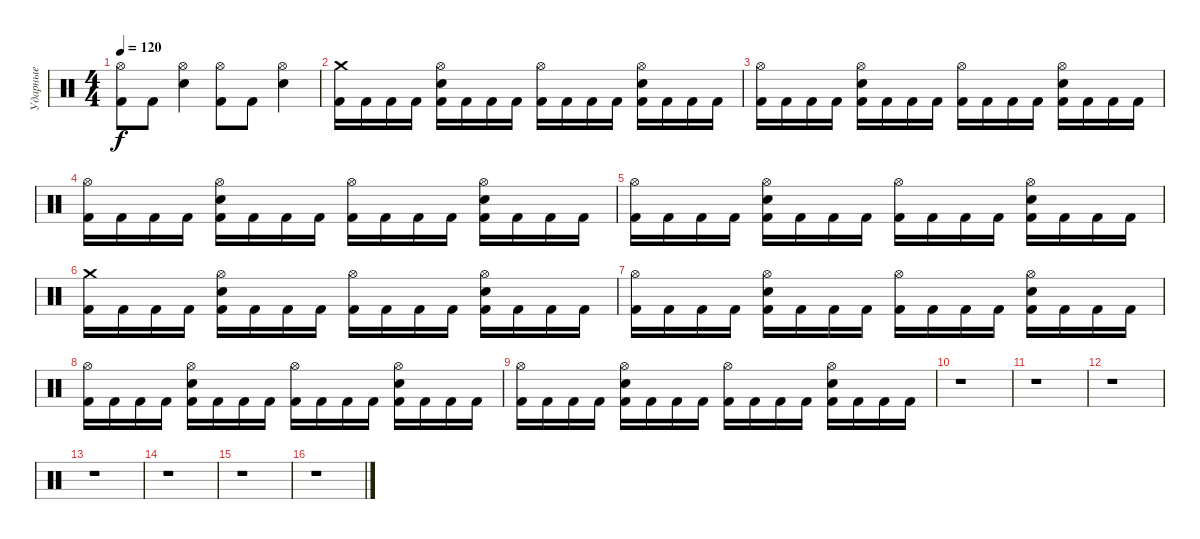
\track ("Ударные" "Ударные") {instrument percussion}
\staff {score}
\articulation defaults
\ts (4 4)
\tempo 120
\clef neutral
\ks c
("Hi-Hat (open)" "Kick (hit) 2").8{dy f} "Kick (hit) 2".8 ("Hi-Hat (open)" "Electric Snare (hit)").4 ("Hi-Hat (open)" "Kick (hit) 2").8 "Kick (hit) 2".8 ("Hi-Hat (open)" "Electric Snare (hit)").4 |
("Crash medium (hit)" "Kick (hit) 2").16 "Kick (hit) 2".16 "Kick (hit) 2".16 "Kick (hit) 2".16 ("Hi-Hat (open)" "Electric Snare (hit)" "Kick (hit) 2").16 "Kick (hit) 2".16 "Kick (hit) 2".16 "Kick (hit) 2".16 ("Hi-Hat (open)" "Kick (hit) 2").16 "Kick (hit) 2".16 "Kick (hit) 2".16 "Kick (hit) 2".16 ("Hi-Hat (open)" "Electric Snare (hit)" "Kick (hit) 2").16 "Kick (hit) 2".16 "Kick (hit) 2".16 "Kick (hit) 2".16 |
("Hi-Hat (open)" "Kick (hit) 2").16 "Kick (hit) 2".16 "Kick (hit) 2".16 "Kick (hit) 2".16 ("Hi-Hat (open)" "Electric Snare (hit)" "Kick (hit) 2").16 "Kick (hit) 2".16 "Kick (hit) 2".16 "Kick (hit) 2".16 ("Hi-Hat (open)" "Kick (hit) 2").16 "Kick (hit) 2".16 "Kick (hit) 2".16 "Kick (hit) 2".16 ("Hi-Hat (open)" "Electric Snare (hit)" "Kick (hit) 2").16 "Kick (hit) 2".16 "Kick (hit) 2".16 "Kick (hit) 2".16 |
("Hi-Hat (open)" "Kick (hit) 2").16 "Kick (hit) 2".16 "Kick (hit) 2".16 "Kick (hit) 2".16 ("Hi-Hat (open)" "Electric Snare (hit)" "Kick (hit) 2").16 "Kick (hit) 2".16 "Kick (hit) 2".16 "Kick (hit) 2".16 ("Hi-Hat (open)" "Kick (hit) 2").16 "Kick (hit) 2".16 "Kick (hit) 2".16 "Kick (hit) 2".16 ("Hi-Hat (open)" "Electric Snare (hit)" "Kick (hit) 2").16 "Kick (hit) 2".16 "Kick (hit) 2".16 "Kick (hit) 2".16 |
("Hi-Hat (open)" "Kick (hit) 2").16 "Kick (hit) 2".16 "Kick (hit) 2".16 "Kick (hit) 2".16 ("Hi-Hat (open)" "Electric Snare (hit)" "Kick (hit) 2").16 "Kick (hit) 2".16 "Kick (hit) 2".16 "Kick (hit) 2".16 ("Hi-Hat (open)" "Kick (hit) 2").16 "Kick (hit) 2".16 "Kick (hit) 2".16 "Kick (hit) 2".16 ("Hi-Hat (open)" "Electric Snare (hit)" "Kick (hit) 2").16 "Kick (hit) 2".16 "Kick (hit) 2".16 "Kick (hit) 2".16 |
("Crash medium (hit)" "Kick (hit) 2").16 "Kick (hit) 2".16 "Kick (hit) 2".16 "Kick (hit) 2".16 ("Hi-Hat (open)" "Electric Snare (hit)" "Kick (hit) 2").16 "Kick (hit) 2".16 "Kick (hit) 2".16 "Kick (hit) 2".16 ("Hi-Hat (open)" "Kick (hit) 2").16 "Kick (hit) 2".16 "Kick (hit) 2".16 "Kick (hit) 2".16 ("Hi-Hat (open)" "Electric Snare (hit)" "Kick (hit) 2").16 "Kick (hit) 2".16 "Kick (hit) 2".16 "Kick (hit) 2".16 |
("Hi-Hat (open)" "Kick (hit) 2").16 "Kick (hit) 2".16 "Kick (hit) 2".16 "Kick (hit) 2".16 ("Hi-Hat (open)" "Electric Snare (hit)" "Kick (hit) 2").16 "Kick (hit) 2".16 "Kick (hit) 2".16 "Kick (hit) 2".16 ("Hi-Hat (open)" "Kick (hit) 2").16 "Kick (hit) 2".16 "Kick (hit) 2".16 "Kick (hit) 2".16 ("Hi-Hat (open)" "Electric Snare (hit)" "Kick (hit) 2").16 "Kick (hit) 2".16 "Kick (hit) 2".16 "Kick (hit) 2".16 |
("Hi-Hat (open)" "Kick (hit) 2").16 "Kick (hit) 2".16 "Kick (hit) 2".16 "Kick (hit) 2".16 ("Hi-Hat (open)" "Electric Snare (hit)" "Kick (hit) 2").16 "Kick (hit) 2".16 "Kick (hit) 2".16 "Kick (hit) 2".16 ("Hi-Hat (open)" "Kick (hit) 2").16 "Kick (hit) 2".16 "Kick (hit) 2".16 "Kick (hit) 2".16 ("Hi-Hat (open)" "Electric Snare (hit)" "Kick (hit) 2").16 "Kick (hit) 2".16 "Kick (hit) 2".16 "Kick (hit) 2".16 |
("Hi-Hat (open)" "Kick (hit) 2").16 "Kick (hit) 2".16 "Kick (hit) 2".16 "Kick (hit) 2".16 ("Hi-Hat (open)" "Electric Snare (hit)" "Kick (hit) 2").16 "Kick (hit) 2".16 "Kick (hit) 2".16 "Kick (hit) 2".16 ("Hi-Hat (open)" "Kick (hit) 2").16 "Kick (hit) 2".16 "Kick (hit) 2".16 "Kick (hit) 2".16 ("Hi-Hat (open)" "Electric Snare (hit)" "Kick (hit) 2").16 "Kick (hit) 2".16 "Kick (hit) 2".16 "Kick (hit) 2".16 |
r.1 |
r.1 |
r.1 |
r.1 |
r.1 |
r.1 |
r.1
